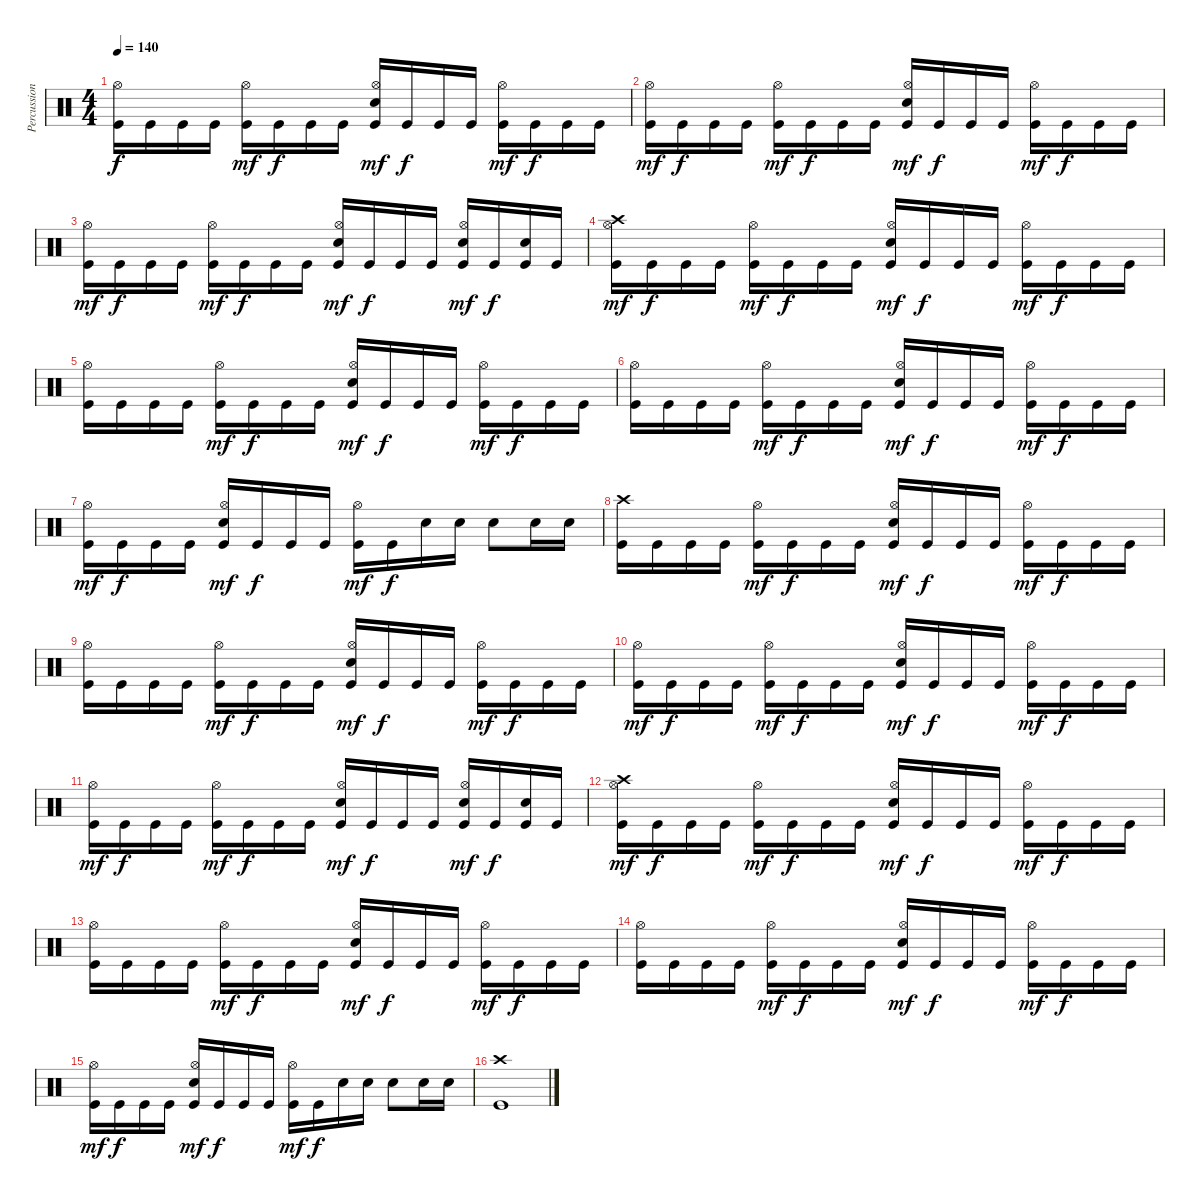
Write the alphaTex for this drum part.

\track ("Percussion" "Percussion") {instrument percussion}
\staff {score}
\articulation defaults
\ts (4 4)
\tempo 140
\clef neutral
\ks c
("Kick (hit)" "Hi-Hat (open)").16{dy f} "Kick (hit)".16 "Kick (hit)".16 "Kick (hit)".16 ("Kick (hit)" "Hi-Hat (open)").16{dy mf} "Kick (hit)".16{dy f} "Kick (hit)".16 "Kick (hit)".16 ("Kick (hit)" "Electric Snare (hit)" "Hi-Hat (open)").16{dy mf} "Kick (hit)".16{dy f} "Kick (hit)".16 "Kick (hit)".16 ("Kick (hit)" "Hi-Hat (open)").16{dy mf} "Kick (hit)".16{dy f} "Kick (hit)".16 "Kick (hit)".16 |
("Kick (hit)" "Hi-Hat (open)").16{dy mf} "Kick (hit)".16{dy f} "Kick (hit)".16 "Kick (hit)".16 ("Kick (hit)" "Hi-Hat (open)").16{dy mf} "Kick (hit)".16{dy f} "Kick (hit)".16 "Kick (hit)".16 ("Kick (hit)" "Electric Snare (hit)" "Hi-Hat (open)").16{dy mf} "Kick (hit)".16{dy f} "Kick (hit)".16 "Kick (hit)".16 ("Kick (hit)" "Hi-Hat (open)").16{dy mf} "Kick (hit)".16{dy f} "Kick (hit)".16 "Kick (hit)".16 |
("Kick (hit)" "Hi-Hat (open)").16{dy mf} "Kick (hit)".16{dy f} "Kick (hit)".16 "Kick (hit)".16 ("Kick (hit)" "Hi-Hat (open)").16{dy mf} "Kick (hit)".16{dy f} "Kick (hit)".16 "Kick (hit)".16 ("Kick (hit)" "Electric Snare (hit)" "Hi-Hat (open)").16{dy mf} "Kick (hit)".16{dy f} "Kick (hit)".16 "Kick (hit)".16 ("Kick (hit)" "Electric Snare (hit)" "Hi-Hat (open)").16{dy mf} "Kick (hit)".16{dy f} ("Kick (hit)" "Electric Snare (hit)").16 "Kick (hit)".16 |
("Kick (hit)" "Hi-Hat (open)" "Crash high (hit)").16{dy mf} "Kick (hit)".16{dy f} "Kick (hit)".16 "Kick (hit)".16 ("Kick (hit)" "Hi-Hat (open)").16{dy mf} "Kick (hit)".16{dy f} "Kick (hit)".16 "Kick (hit)".16 ("Kick (hit)" "Electric Snare (hit)" "Hi-Hat (open)").16{dy mf} "Kick (hit)".16{dy f} "Kick (hit)".16 "Kick (hit)".16 ("Kick (hit)" "Hi-Hat (open)").16{dy mf} "Kick (hit)".16{dy f} "Kick (hit)".16 "Kick (hit)".16 |
("Kick (hit)" "Hi-Hat (open)").16 "Kick (hit)".16 "Kick (hit)".16 "Kick (hit)".16 ("Kick (hit)" "Hi-Hat (open)").16{dy mf} "Kick (hit)".16{dy f} "Kick (hit)".16 "Kick (hit)".16 ("Kick (hit)" "Electric Snare (hit)" "Hi-Hat (open)").16{dy mf} "Kick (hit)".16{dy f} "Kick (hit)".16 "Kick (hit)".16 ("Kick (hit)" "Hi-Hat (open)").16{dy mf} "Kick (hit)".16{dy f} "Kick (hit)".16 "Kick (hit)".16 |
("Kick (hit)" "Hi-Hat (open)").16 "Kick (hit)".16 "Kick (hit)".16 "Kick (hit)".16 ("Kick (hit)" "Hi-Hat (open)").16{dy mf} "Kick (hit)".16{dy f} "Kick (hit)".16 "Kick (hit)".16 ("Kick (hit)" "Electric Snare (hit)" "Hi-Hat (open)").16{dy mf} "Kick (hit)".16{dy f} "Kick (hit)".16 "Kick (hit)".16 ("Kick (hit)" "Hi-Hat (open)").16{dy mf} "Kick (hit)".16{dy f} "Kick (hit)".16 "Kick (hit)".16 |
("Kick (hit)" "Hi-Hat (open)").16{dy mf} "Kick (hit)".16{dy f} "Kick (hit)".16 "Kick (hit)".16 ("Kick (hit)" "Electric Snare (hit)" "Hi-Hat (open)").16{dy mf} "Kick (hit)".16{dy f} "Kick (hit)".16 "Kick (hit)".16 ("Kick (hit)" "Hi-Hat (open)").16{dy mf} "Kick (hit)".16{dy f} "Electric Snare (hit)".16 "Electric Snare (hit)".16 "Electric Snare (hit)".8 "Electric Snare (hit)".16 "Electric Snare (hit)".16 |
("Kick (hit)" "Crash high (hit)").16 "Kick (hit)".16 "Kick (hit)".16 "Kick (hit)".16 ("Kick (hit)" "Hi-Hat (open)").16{dy mf} "Kick (hit)".16{dy f} "Kick (hit)".16 "Kick (hit)".16 ("Kick (hit)" "Electric Snare (hit)" "Hi-Hat (open)").16{dy mf} "Kick (hit)".16{dy f} "Kick (hit)".16 "Kick (hit)".16 ("Kick (hit)" "Hi-Hat (open)").16{dy mf} "Kick (hit)".16{dy f} "Kick (hit)".16 "Kick (hit)".16 |
("Kick (hit)" "Hi-Hat (open)").16 "Kick (hit)".16 "Kick (hit)".16 "Kick (hit)".16 ("Kick (hit)" "Hi-Hat (open)").16{dy mf} "Kick (hit)".16{dy f} "Kick (hit)".16 "Kick (hit)".16 ("Kick (hit)" "Electric Snare (hit)" "Hi-Hat (open)").16{dy mf} "Kick (hit)".16{dy f} "Kick (hit)".16 "Kick (hit)".16 ("Kick (hit)" "Hi-Hat (open)").16{dy mf} "Kick (hit)".16{dy f} "Kick (hit)".16 "Kick (hit)".16 |
("Kick (hit)" "Hi-Hat (open)").16{dy mf} "Kick (hit)".16{dy f} "Kick (hit)".16 "Kick (hit)".16 ("Kick (hit)" "Hi-Hat (open)").16{dy mf} "Kick (hit)".16{dy f} "Kick (hit)".16 "Kick (hit)".16 ("Kick (hit)" "Electric Snare (hit)" "Hi-Hat (open)").16{dy mf} "Kick (hit)".16{dy f} "Kick (hit)".16 "Kick (hit)".16 ("Kick (hit)" "Hi-Hat (open)").16{dy mf} "Kick (hit)".16{dy f} "Kick (hit)".16 "Kick (hit)".16 |
("Kick (hit)" "Hi-Hat (open)").16{dy mf} "Kick (hit)".16{dy f} "Kick (hit)".16 "Kick (hit)".16 ("Kick (hit)" "Hi-Hat (open)").16{dy mf} "Kick (hit)".16{dy f} "Kick (hit)".16 "Kick (hit)".16 ("Kick (hit)" "Electric Snare (hit)" "Hi-Hat (open)").16{dy mf} "Kick (hit)".16{dy f} "Kick (hit)".16 "Kick (hit)".16 ("Kick (hit)" "Electric Snare (hit)" "Hi-Hat (open)").16{dy mf} "Kick (hit)".16{dy f} ("Kick (hit)" "Electric Snare (hit)").16 "Kick (hit)".16 |
("Kick (hit)" "Hi-Hat (open)" "Crash high (hit)").16{dy mf} "Kick (hit)".16{dy f} "Kick (hit)".16 "Kick (hit)".16 ("Kick (hit)" "Hi-Hat (open)").16{dy mf} "Kick (hit)".16{dy f} "Kick (hit)".16 "Kick (hit)".16 ("Kick (hit)" "Electric Snare (hit)" "Hi-Hat (open)").16{dy mf} "Kick (hit)".16{dy f} "Kick (hit)".16 "Kick (hit)".16 ("Kick (hit)" "Hi-Hat (open)").16{dy mf} "Kick (hit)".16{dy f} "Kick (hit)".16 "Kick (hit)".16 |
("Kick (hit)" "Hi-Hat (open)").16 "Kick (hit)".16 "Kick (hit)".16 "Kick (hit)".16 ("Kick (hit)" "Hi-Hat (open)").16{dy mf} "Kick (hit)".16{dy f} "Kick (hit)".16 "Kick (hit)".16 ("Kick (hit)" "Electric Snare (hit)" "Hi-Hat (open)").16{dy mf} "Kick (hit)".16{dy f} "Kick (hit)".16 "Kick (hit)".16 ("Kick (hit)" "Hi-Hat (open)").16{dy mf} "Kick (hit)".16{dy f} "Kick (hit)".16 "Kick (hit)".16 |
("Kick (hit)" "Hi-Hat (open)").16 "Kick (hit)".16 "Kick (hit)".16 "Kick (hit)".16 ("Kick (hit)" "Hi-Hat (open)").16{dy mf} "Kick (hit)".16{dy f} "Kick (hit)".16 "Kick (hit)".16 ("Kick (hit)" "Electric Snare (hit)" "Hi-Hat (open)").16{dy mf} "Kick (hit)".16{dy f} "Kick (hit)".16 "Kick (hit)".16 ("Kick (hit)" "Hi-Hat (open)").16{dy mf} "Kick (hit)".16{dy f} "Kick (hit)".16 "Kick (hit)".16 |
("Kick (hit)" "Hi-Hat (open)").16{dy mf} "Kick (hit)".16{dy f} "Kick (hit)".16 "Kick (hit)".16 ("Kick (hit)" "Electric Snare (hit)" "Hi-Hat (open)").16{dy mf} "Kick (hit)".16{dy f} "Kick (hit)".16 "Kick (hit)".16 ("Kick (hit)" "Hi-Hat (open)").16{dy mf} "Kick (hit)".16{dy f} "Electric Snare (hit)".16 "Electric Snare (hit)".16 "Electric Snare (hit)".8 "Electric Snare (hit)".16 "Electric Snare (hit)".16 |
("Kick (hit)" "Crash high (hit)").1
